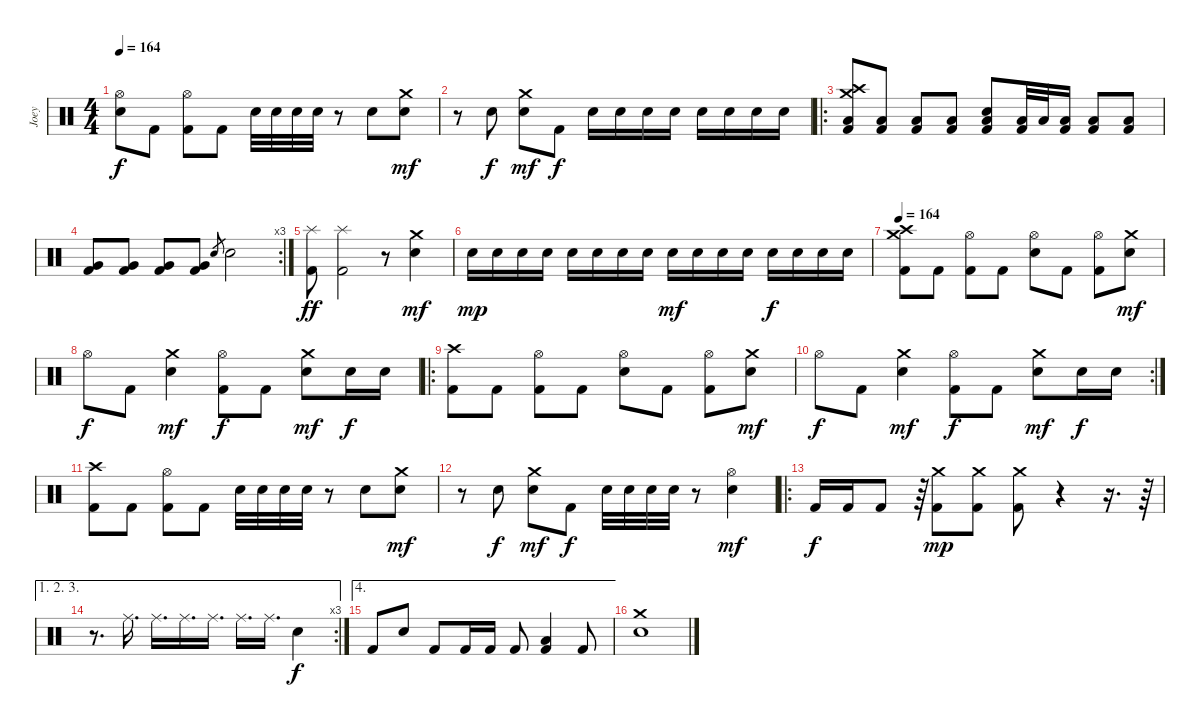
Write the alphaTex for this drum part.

\track ("Joey" "Joey") {instrument percussion}
\staff {score}
\articulation defaults
\ts (4 4)
\tempo 164
\clef neutral
\ks c
("Hi-Hat (open)" "Electric Snare (hit)").8{dy f} "Kick (hit) 2".8 ("Hi-Hat (open)" "Kick (hit) 2").8 "Kick (hit) 2".8 "Electric Snare (hit)".32 "Electric Snare (hit)".32 "Electric Snare (hit)".32 "Electric Snare (hit)".32 r.8 "Electric Snare (hit)".8 ("Crash medium (hit)" "Electric Snare (hit)").8{dy mf} |
r.8 "Electric Snare (hit)".8{dy f} ("Crash medium (hit)" "Electric Snare (hit)").8{dy mf} "Kick (hit) 2".8{dy f} "Electric Snare (hit)".16 "Electric Snare (hit)".16 "Electric Snare (hit)".16 "Electric Snare (hit)".16 "Electric Snare (hit)".16 "Electric Snare (hit)".16 "Electric Snare (hit)".16 "Electric Snare (hit)".16 |
\ro
("Crash high (hit)" "Crash medium (hit)" "Low Floor Tom (hit)" "Kick (hit) 2").8 ("Low Floor Tom (hit)" "Kick (hit) 2").8 ("Low Floor Tom (hit)" "Kick (hit) 2").8 ("Low Floor Tom (hit)" "Kick (hit) 2").8 ("Electric Snare (hit)" "Low Floor Tom (hit)" "Kick (hit) 2").8 ("Low Tom (hit)" "Kick (hit) 2").32 "Low Tom (hit)".32 ("Low Tom (hit)" "Kick (hit) 2").16 ("Low Tom (hit)" "Kick (hit) 2").8 ("Low Tom (hit)" "Kick (hit) 2").8 |
\rc 3
("Very Low Tom (hit)" "Kick (hit) 2").8 ("Very Low Tom (hit)" "Kick (hit) 2").8 ("Very Low Tom (hit)" "Kick (hit) 2").8 ("Very Low Tom (hit)" "Kick (hit) 2").8 "Electric Snare (hit)".8{gr} "Electric Snare (hit)".2 |
("Splash (hit)" "Kick (hit) 2").8{dy ff} ("Splash (hit)" "Kick (hit) 2").2 r.8 ("Crash medium (hit)" "Electric Snare (hit)").4{dy mf} |
"Electric Snare (hit)".16{dy mp} "Electric Snare (hit)".16 "Electric Snare (hit)".16 "Electric Snare (hit)".16 "Electric Snare (hit)".16 "Electric Snare (hit)".16 "Electric Snare (hit)".16 "Electric Snare (hit)".16 "Electric Snare (hit)".16{dy mf} "Electric Snare (hit)".16 "Electric Snare (hit)".16 "Electric Snare (hit)".16 "Electric Snare (hit)".16{dy f} "Electric Snare (hit)".16 "Electric Snare (hit)".16 "Electric Snare (hit)".16 |
\tempo 164
("Crash high (hit)" "Crash medium (hit)" "Kick (hit) 2").8 "Kick (hit) 2".8 ("Hi-Hat (open)" "Kick (hit) 2").8 "Kick (hit) 2".8 ("Hi-Hat (open)" "Electric Snare (hit)").8 "Kick (hit) 2".8 ("Hi-Hat (open)" "Kick (hit) 2").8 ("Crash medium (hit)" "Electric Snare (hit)").8{dy mf} |
"Hi-Hat (open)".8{dy f} "Kick (hit) 2".8 ("Crash medium (hit)" "Electric Snare (hit)").4{dy mf} ("Hi-Hat (open)" "Kick (hit) 2").8{dy f} "Kick (hit) 2".8 ("Crash medium (hit)" "Electric Snare (hit)").8{dy mf} "Electric Snare (hit)".16{dy f} "Electric Snare (hit)".16 |
\ro
("Crash high (hit)" "Kick (hit) 2").8 "Kick (hit) 2".8 ("Hi-Hat (open)" "Kick (hit) 2").8 "Kick (hit) 2".8 ("Hi-Hat (open)" "Electric Snare (hit)").8 "Kick (hit) 2".8 ("Hi-Hat (open)" "Kick (hit) 2").8 ("Crash medium (hit)" "Electric Snare (hit)").8{dy mf} |
\rc 2 "Hi-Hat (open)".8{dy f} "Kick (hit) 2".8
("Crash medium (hit)" "Electric Snare (hit)").4{dy mf} ("Hi-Hat (open)" "Kick (hit) 2").8{dy f} "Kick (hit) 2".8 ("Crash medium (hit)" "Electric Snare (hit)").8{dy mf} "Electric Snare (hit)".16{dy f} "Electric Snare (hit)".16 |
("Crash high (hit)" "Kick (hit) 2").8 "Kick (hit) 2".8 ("Hi-Hat (open)" "Kick (hit) 2").8 "Kick (hit) 2".8 "Electric Snare (hit)".32 "Electric Snare (hit)".32 "Electric Snare (hit)".32 "Electric Snare (hit)".32 r.8 "Electric Snare (hit)".8 ("Crash medium (hit)" "Electric Snare (hit)").8{dy mf} |
r.8 "Electric Snare (hit)".8{dy f} ("Crash medium (hit)" "Electric Snare (hit)").8{dy mf} "Kick (hit) 2".8{dy f} "Electric Snare (hit)".32 "Electric Snare (hit)".32 "Electric Snare (hit)".32 "Electric Snare (hit)".32 r.8 ("Hi-Hat (open)" "Electric Snare (hit)").4{dy mf} |
\ro "Kick (hit) 2".16{dy f} "Kick (hit) 2".16 "Kick (hit) 2".8
r.64 ("Crash medium (hit)" "Kick (hit) 2").8{dy mp} ("Crash medium (hit)" "Kick (hit) 2").8 ("Crash medium (hit)" "Kick (hit) 2").8 r.4 r.16{d} r.64 |
\ae (1 2 3)
\rc 3
r.8{d} "Ride (middle)".16{d} "Ride (middle)".16{d} "Ride (middle)".16{d} "Ride (middle)".16{d} "Ride (middle)".16{d} "Ride (middle)".16{d} "Electric Snare (hit)".4{dy f} |
\ae 4 "Kick (hit) 2".8 "Electric Snare (hit)".8 "Kick (hit) 2".8 "Kick (hit) 2".16 "Kick (hit) 2".16 "Kick (hit) 2".8
("Low Floor Tom (hit)" "Kick (hit) 2").4 "Kick (hit) 2".8 |
("Crash medium (hit)" "Electric Snare (hit)").1
